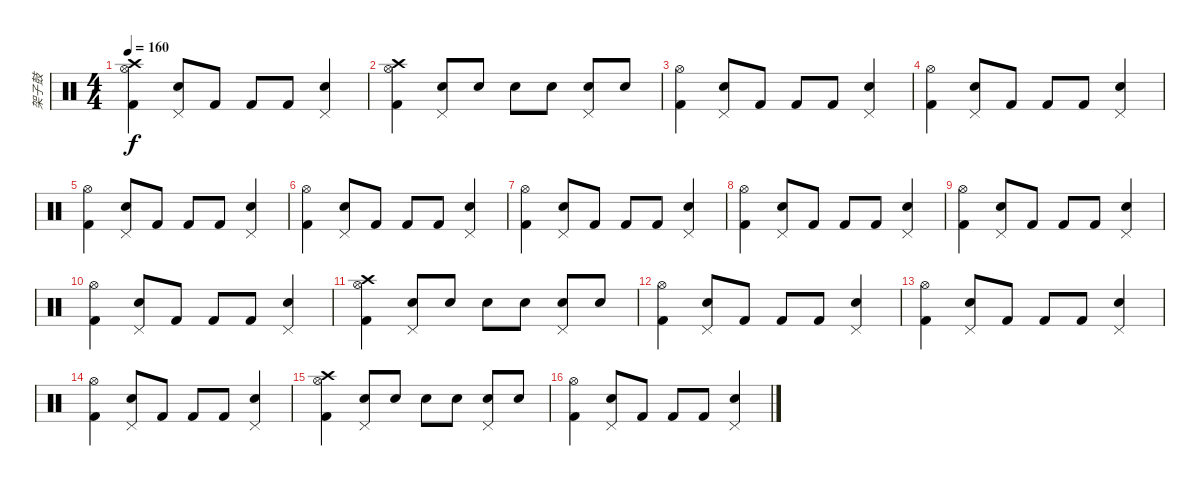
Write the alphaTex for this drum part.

\track ("架子鼓" "架子鼓") {instrument percussion}
\staff {score}
\articulation defaults
\ts (4 4)
\tempo 160
\clef neutral
\ks c
("Kick (hit) 2" "Hi-Hat (open)" "Crash high (hit)").4{dy f} ("Electric Snare (hit)" "Pedal Hi-Hat (hit)").8 "Kick (hit) 2".8 "Kick (hit) 2".8 "Kick (hit) 2".8 ("Electric Snare (hit)" "Pedal Hi-Hat (hit)").4 |
("Kick (hit) 2" "Hi-Hat (open)" "Crash high (hit)").4 ("Electric Snare (hit)" "Pedal Hi-Hat (hit)").8 "Electric Snare (hit)".8 "Electric Snare (hit)".8 "Electric Snare (hit)".8 ("Electric Snare (hit)" "Pedal Hi-Hat (hit)").8 "Electric Snare (hit)".8 |
("Kick (hit) 2" "Hi-Hat (open)").4 ("Electric Snare (hit)" "Pedal Hi-Hat (hit)").8 "Kick (hit) 2".8 "Kick (hit) 2".8 "Kick (hit) 2".8 ("Electric Snare (hit)" "Pedal Hi-Hat (hit)").4 |
("Kick (hit) 2" "Hi-Hat (open)").4 ("Electric Snare (hit)" "Pedal Hi-Hat (hit)").8 "Kick (hit) 2".8 "Kick (hit) 2".8 "Kick (hit) 2".8 ("Electric Snare (hit)" "Pedal Hi-Hat (hit)").4 |
("Kick (hit) 2" "Hi-Hat (open)").4 ("Electric Snare (hit)" "Pedal Hi-Hat (hit)").8 "Kick (hit) 2".8 "Kick (hit) 2".8 "Kick (hit) 2".8 ("Electric Snare (hit)" "Pedal Hi-Hat (hit)").4 |
("Kick (hit) 2" "Hi-Hat (open)").4 ("Electric Snare (hit)" "Pedal Hi-Hat (hit)").8 "Kick (hit) 2".8 "Kick (hit) 2".8 "Kick (hit) 2".8 ("Electric Snare (hit)" "Pedal Hi-Hat (hit)").4 |
("Kick (hit) 2" "Hi-Hat (open)").4 ("Electric Snare (hit)" "Pedal Hi-Hat (hit)").8 "Kick (hit) 2".8 "Kick (hit) 2".8 "Kick (hit) 2".8 ("Electric Snare (hit)" "Pedal Hi-Hat (hit)").4 |
("Kick (hit) 2" "Hi-Hat (open)").4 ("Electric Snare (hit)" "Pedal Hi-Hat (hit)").8 "Kick (hit) 2".8 "Kick (hit) 2".8 "Kick (hit) 2".8 ("Electric Snare (hit)" "Pedal Hi-Hat (hit)").4 |
("Kick (hit) 2" "Hi-Hat (open)").4 ("Electric Snare (hit)" "Pedal Hi-Hat (hit)").8 "Kick (hit) 2".8 "Kick (hit) 2".8 "Kick (hit) 2".8 ("Electric Snare (hit)" "Pedal Hi-Hat (hit)").4 |
("Kick (hit) 2" "Hi-Hat (open)").4 ("Electric Snare (hit)" "Pedal Hi-Hat (hit)").8 "Kick (hit) 2".8 "Kick (hit) 2".8 "Kick (hit) 2".8 ("Electric Snare (hit)" "Pedal Hi-Hat (hit)").4 |
("Kick (hit) 2" "Hi-Hat (open)" "Crash high (hit)").4 ("Electric Snare (hit)" "Pedal Hi-Hat (hit)").8 "Electric Snare (hit)".8 "Electric Snare (hit)".8 "Electric Snare (hit)".8 ("Electric Snare (hit)" "Pedal Hi-Hat (hit)").8 "Electric Snare (hit)".8 |
("Kick (hit) 2" "Hi-Hat (open)").4 ("Electric Snare (hit)" "Pedal Hi-Hat (hit)").8 "Kick (hit) 2".8 "Kick (hit) 2".8 "Kick (hit) 2".8 ("Electric Snare (hit)" "Pedal Hi-Hat (hit)").4 |
("Kick (hit) 2" "Hi-Hat (open)").4 ("Electric Snare (hit)" "Pedal Hi-Hat (hit)").8 "Kick (hit) 2".8 "Kick (hit) 2".8 "Kick (hit) 2".8 ("Electric Snare (hit)" "Pedal Hi-Hat (hit)").4 |
("Kick (hit) 2" "Hi-Hat (open)").4 ("Electric Snare (hit)" "Pedal Hi-Hat (hit)").8 "Kick (hit) 2".8 "Kick (hit) 2".8 "Kick (hit) 2".8 ("Electric Snare (hit)" "Pedal Hi-Hat (hit)").4 |
("Kick (hit) 2" "Hi-Hat (open)" "Crash high (hit)").4 ("Electric Snare (hit)" "Pedal Hi-Hat (hit)").8 "Electric Snare (hit)".8 "Electric Snare (hit)".8 "Electric Snare (hit)".8 ("Electric Snare (hit)" "Pedal Hi-Hat (hit)").8 "Electric Snare (hit)".8 |
("Kick (hit) 2" "Hi-Hat (open)").4 ("Electric Snare (hit)" "Pedal Hi-Hat (hit)").8 "Kick (hit) 2".8 "Kick (hit) 2".8 "Kick (hit) 2".8 ("Electric Snare (hit)" "Pedal Hi-Hat (hit)").4
